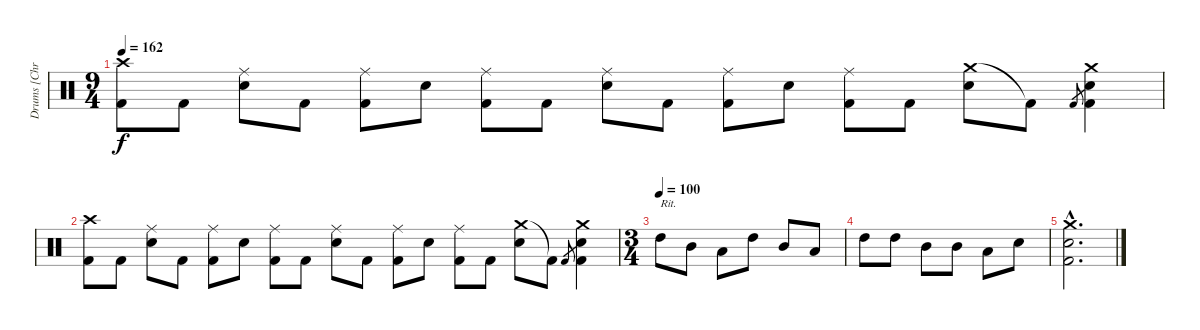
\track ("Drums [Chris Maitland]" "Drums [Chr") {instrument percussion}
\staff {score}
\articulation defaults
\ts (9 4)
\tempo 162
\clef neutral
\ks c
("Crash high (hit)" "Kick (hit) 2").8{dy f} "Kick (hit) 2".8 ("Ride (middle)" "Electric Snare (hit)").8 "Kick (hit) 2".8 ("Ride (middle)" "Kick (hit) 2").8 "Electric Snare (hit)".8 ("Ride (middle)" "Kick (hit) 2").8 "Kick (hit) 2".8 ("Ride (middle)" "Electric Snare (hit)").8 "Kick (hit) 2".8 ("Ride (middle)" "Kick (hit) 2").8 "Electric Snare (hit)".8 ("Ride (middle)" "Kick (hit) 2").8 "Kick (hit) 2".8 ("Crash medium (hit)" "Electric Snare (hit)").8 "Kick (hit) 2"{t}.8 "Kick (hit) 2".8{gr} ("Crash medium (hit)" "Electric Snare (hit)" "Kick (hit) 2").4 |
("Crash high (hit)" "Kick (hit) 2").8 "Kick (hit) 2".8 ("Ride (middle)" "Electric Snare (hit)").8 "Kick (hit) 2".8 ("Ride (middle)" "Kick (hit) 2").8 "Electric Snare (hit)".8 ("Ride (middle)" "Kick (hit) 2").8 "Kick (hit) 2".8 ("Ride (middle)" "Electric Snare (hit)").8 "Kick (hit) 2".8 ("Ride (middle)" "Kick (hit) 2").8 "Electric Snare (hit)".8 ("Ride (middle)" "Kick (hit) 2").8 "Kick (hit) 2".8 ("Crash medium (hit)" "Electric Snare (hit)").8 "Kick (hit) 2"{t}.8 "Kick (hit) 2".8{gr} ("Crash medium (hit)" "Electric Snare (hit)" "Kick (hit) 2").4 |
\ts (3 4)
\tempo (100)
"High Tom (hit)".8{txt "Rit."} "Mid Tom (hit)".8 "Low Tom (hit)".8 "High Tom (hit)".8 "Mid Tom (hit)".8 "Low Tom (hit)".8 |
"High Tom (hit)".8 "High Tom (hit)".8 "Mid Tom (hit)".8 "Mid Tom (hit)".8 "Low Tom (hit)".8 "Electric Snare (hit)".8 |
("Crash medium (hit)"{hac} "Electric Snare (hit)"{hac} "Kick (hit) 2"{hac}).2{d}
